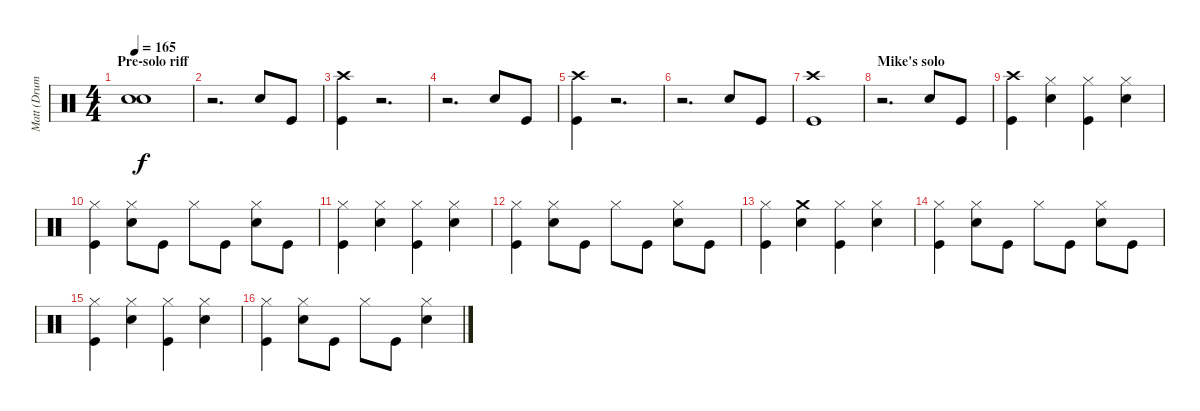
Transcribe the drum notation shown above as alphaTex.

\track ("Matt (Drums)" "Matt (Drum") {instrument percussion}
\staff {score}
\articulation defaults
\ts (4 4)
\section ("" "Pre-solo riff")
\tempo 165
\clef neutral
\ks c
("Electric Snare (hit)" "Electric Snare (hit)").1{bu 120 dy f} |
r.2{d} "Electric Snare (hit)".8 "Kick (hit)".8 |
("Crash high (hit)" "Kick (hit)").4 r.2{d} |
r.2{d} "Electric Snare (hit)".8 "Kick (hit)".8 |
("Crash high (hit)" "Kick (hit)").4 r.2{d} |
r.2{d} "Electric Snare (hit)".8 "Kick (hit)".8 |
("Crash high (hit)" "Kick (hit)").1 |
\section ("" "Mike's solo")
r.2{d} "Electric Snare (hit)".8 "Kick (hit)".8 |
("Crash high (hit)" "Kick (hit)").4 ("Hi-Hat (closed)" "Electric Snare (hit)").4 ("Hi-Hat (closed)" "Kick (hit)").4 ("Hi-Hat (closed)" "Electric Snare (hit)").4 |
("Hi-Hat (closed)" "Kick (hit)").4 ("Hi-Hat (closed)" "Electric Snare (hit)").8 "Kick (hit)".8 "Hi-Hat (closed)".8 "Kick (hit)".8 ("Hi-Hat (closed)" "Electric Snare (hit)").8 "Kick (hit)".8 |
("Hi-Hat (closed)" "Kick (hit)").4 ("Hi-Hat (closed)" "Electric Snare (hit)").4 ("Hi-Hat (closed)" "Kick (hit)").4 ("Hi-Hat (closed)" "Electric Snare (hit)").4 |
("Hi-Hat (closed)" "Kick (hit)").4 ("Hi-Hat (closed)" "Electric Snare (hit)").8 "Kick (hit)".8 "Hi-Hat (closed)".8 "Kick (hit)".8 ("Hi-Hat (closed)" "Electric Snare (hit)").8 "Kick (hit)".8 |
("Hi-Hat (closed)" "Kick (hit)").4 ("Crash medium (hit)" "Electric Snare (hit)").4 ("Hi-Hat (closed)" "Kick (hit)").4 ("Hi-Hat (closed)" "Electric Snare (hit)").4 |
("Hi-Hat (closed)" "Kick (hit)").4 ("Hi-Hat (closed)" "Electric Snare (hit)").8 "Kick (hit)".8 "Hi-Hat (closed)".8 "Kick (hit)".8 ("Hi-Hat (closed)" "Electric Snare (hit)").8 "Kick (hit)".8 |
("Hi-Hat (closed)" "Kick (hit)").4 ("Hi-Hat (closed)" "Electric Snare (hit)").4 ("Hi-Hat (closed)" "Kick (hit)").4 ("Hi-Hat (closed)" "Electric Snare (hit)").4 |
("Hi-Hat (closed)" "Kick (hit)").4 ("Hi-Hat (closed)" "Electric Snare (hit)").8 "Kick (hit)".8 "Hi-Hat (closed)".8 "Kick (hit)".8 ("Hi-Hat (closed)" "Electric Snare (hit)").4
